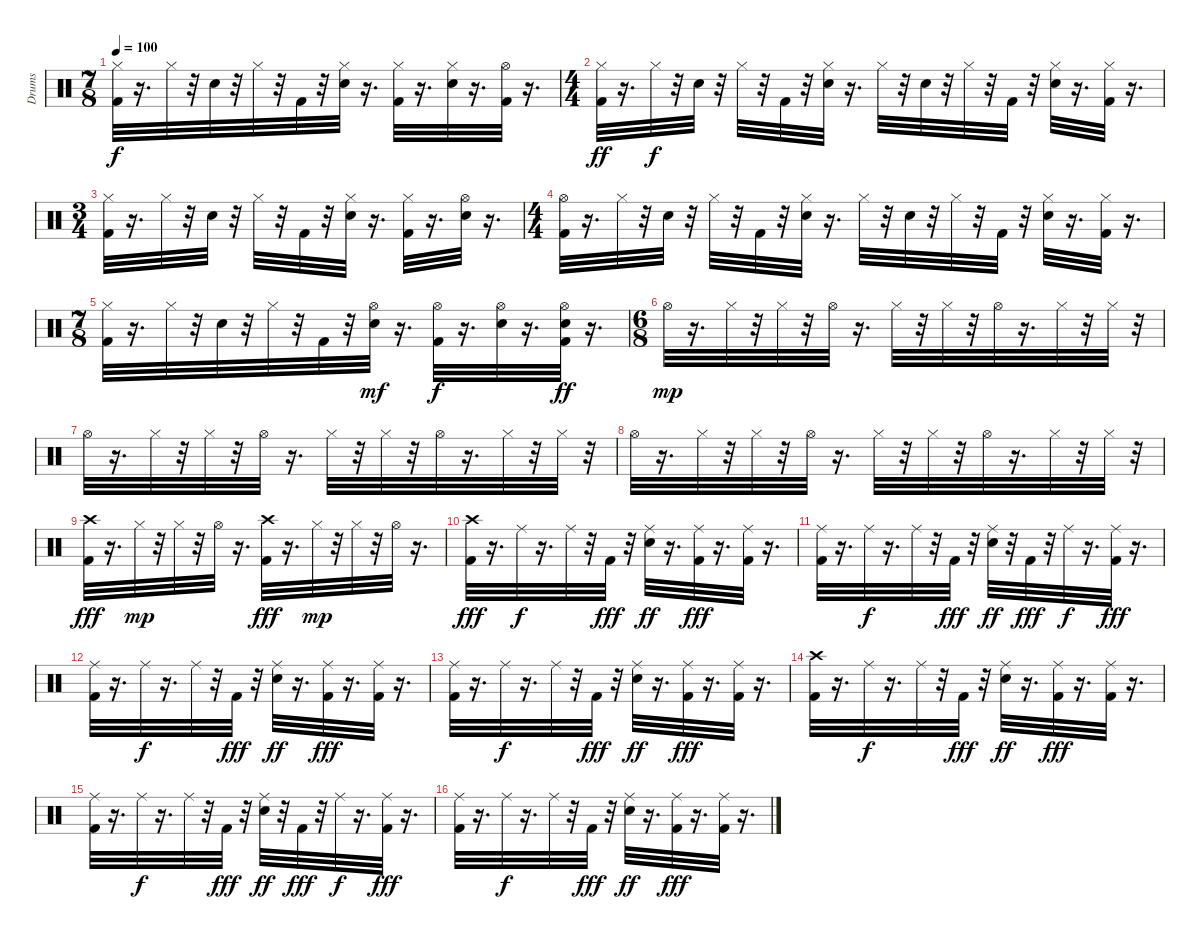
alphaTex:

\track ("Drums               " "Drums     ") {instrument percussion}
\staff {score}
\articulation defaults
\ts (7 8)
\tempo 100
\clef neutral
\ks c
("Hi-Hat (closed)" "Kick (hit) 2").32{dy f} r.16{d} "Hi-Hat (closed)".32 r.32 "Electric Snare (hit)".32 r.32 "Hi-Hat (closed)".32 r.32 "Kick (hit) 2".32 r.32 ("Hi-Hat (closed)" "Electric Snare (hit)").32 r.16{d} ("Hi-Hat (closed)" "Kick (hit) 2").32 r.16{d} ("Hi-Hat (closed)" "Electric Snare (hit)").32 r.16{d} ("Hi-Hat (open)" "Kick (hit) 2").32 r.16{d} |
\ts (4 4)
("Hi-Hat (closed)" "Kick (hit) 2").32{dy ff} r.16{d} "Hi-Hat (closed)".32{dy f} r.32 "Electric Snare (hit)".32 r.32 "Hi-Hat (closed)".32 r.32 "Kick (hit) 2".32 r.32 ("Hi-Hat (closed)" "Electric Snare (hit)").32 r.16{d} "Hi-Hat (closed)".32 r.32 "Electric Snare (hit)".32 r.32 "Hi-Hat (closed)".32 r.32 "Kick (hit) 2".32 r.32 ("Hi-Hat (closed)" "Electric Snare (hit)").32 r.16{d} ("Hi-Hat (closed)" "Kick (hit) 2").32 r.16{d} |
\ts (3 4)
("Hi-Hat (closed)" "Kick (hit) 2").32 r.16{d} "Hi-Hat (closed)".32 r.32 "Electric Snare (hit)".32 r.32 "Hi-Hat (closed)".32 r.32 "Kick (hit) 2".32 r.32 ("Hi-Hat (closed)" "Electric Snare (hit)").32 r.16{d} ("Hi-Hat (closed)" "Kick (hit) 2").32 r.16{d} ("Hi-Hat (open)" "Electric Snare (hit)").32 r.16{d} |
\ts (4 4)
("Hi-Hat (open)" "Kick (hit) 2").32 r.16{d} "Hi-Hat (closed)".32 r.32 "Electric Snare (hit)".32 r.32 "Hi-Hat (closed)".32 r.32 "Kick (hit) 2".32 r.32 ("Hi-Hat (closed)" "Electric Snare (hit)").32 r.16{d} "Hi-Hat (closed)".32 r.32 "Electric Snare (hit)".32 r.32 "Hi-Hat (closed)".32 r.32 "Kick (hit) 2".32 r.32 ("Hi-Hat (closed)" "Electric Snare (hit)").32 r.16{d} ("Hi-Hat (closed)" "Kick (hit) 2").32 r.16{d} |
\ts (7 8)
("Hi-Hat (closed)" "Kick (hit) 2").32 r.16{d} "Hi-Hat (closed)".32 r.32 "Electric Snare (hit)".32 r.32 "Hi-Hat (closed)".32 r.32 "Kick (hit) 2".32 r.32 ("Hi-Hat (open)" "Electric Snare (hit)").32{dy mf} r.16{d} ("Hi-Hat (open)" "Kick (hit) 2").32{dy f} r.16{d} ("Hi-Hat (open)" "Electric Snare (hit)").32 r.16{d} ("Hi-Hat (open)" "Electric Snare (hit)" "Kick (hit) 2").32{dy ff} r.16{d} |
\ts (6 8)
"Hi-Hat (open)".32{dy mp} r.16{d} "Hi-Hat (closed)".32 r.32 "Hi-Hat (closed)".32 r.32 "Hi-Hat (open)".32 r.16{d} "Hi-Hat (closed)".32 r.32 "Hi-Hat (closed)".32 r.32 "Hi-Hat (open)".32 r.16{d} "Hi-Hat (closed)".32 r.32 "Hi-Hat (closed)".32 r.32 |
"Hi-Hat (open)".32 r.16{d} "Hi-Hat (closed)".32 r.32 "Hi-Hat (closed)".32 r.32 "Hi-Hat (open)".32 r.16{d} "Hi-Hat (closed)".32 r.32 "Hi-Hat (closed)".32 r.32 "Hi-Hat (open)".32 r.16{d} "Hi-Hat (closed)".32 r.32 "Hi-Hat (closed)".32 r.32 |
"Hi-Hat (open)".32 r.16{d} "Hi-Hat (closed)".32 r.32 "Hi-Hat (closed)".32 r.32 "Hi-Hat (open)".32 r.16{d} "Hi-Hat (closed)".32 r.32 "Hi-Hat (closed)".32 r.32 "Hi-Hat (open)".32 r.16{d} "Hi-Hat (closed)".32 r.32 "Hi-Hat (closed)".32 r.32 |
("Kick (hit) 2" "Crash high (hit)").32{dy fff} r.16{d} "Hi-Hat (closed)".32{dy mp} r.32 "Hi-Hat (closed)".32 r.32 "Hi-Hat (open)".32 r.16{d} ("Kick (hit) 2" "Crash high (hit)").32{dy fff} r.16{d} "Hi-Hat (closed)".32{dy mp} r.32 "Hi-Hat (closed)".32 r.32 "Hi-Hat (open)".32 r.16{d} |
("Kick (hit) 2" "Crash high (hit)").32{dy fff} r.16{d} "Ride (middle)".32{dy f} r.16{d} "Ride (middle)".32 r.32 "Kick (hit) 2".32{dy fff} r.32 ("Electric Snare (hit)" "Ride (middle)").32{dy ff} r.16{d} ("Kick (hit) 2" "Ride (middle)").32{dy fff} r.16{d} ("Kick (hit) 2" "Ride (middle)").32 r.16{d} |
("Ride (middle)" "Kick (hit) 2").32 r.16{d} "Ride (middle)".32{dy f} r.16{d} "Ride (middle)".32 r.32 "Kick (hit) 2".32{dy fff} r.32 ("Electric Snare (hit)" "Ride (middle)").32{dy ff} r.32 "Kick (hit) 2".32{dy fff} r.32 "Ride (middle)".32{dy f} r.16{d} ("Kick (hit) 2" "Ride (middle)").32{dy fff} r.16{d} |
("Ride (middle)" "Kick (hit) 2").32 r.16{d} "Ride (middle)".32{dy f} r.16{d} "Ride (middle)".32 r.32 "Kick (hit) 2".32{dy fff} r.32 ("Electric Snare (hit)" "Ride (middle)").32{dy ff} r.16{d} ("Kick (hit) 2" "Ride (middle)").32{dy fff} r.16{d} ("Kick (hit) 2" "Ride (middle)").32 r.16{d} |
("Ride (middle)" "Kick (hit) 2").32 r.16{d} "Ride (middle)".32{dy f} r.16{d} "Ride (middle)".32 r.32 "Kick (hit) 2".32{dy fff} r.32 ("Electric Snare (hit)" "Ride (middle)").32{dy ff} r.16{d} ("Kick (hit) 2" "Ride (middle)").32{dy fff} r.16{d} ("Kick (hit) 2" "Ride (middle)").32 r.16{d} |
("Kick (hit) 2" "Crash high (hit)").32 r.16{d} "Ride (middle)".32{dy f} r.16{d} "Ride (middle)".32 r.32 "Kick (hit) 2".32{dy fff} r.32 ("Electric Snare (hit)" "Ride (middle)").32{dy ff} r.16{d} ("Kick (hit) 2" "Ride (middle)").32{dy fff} r.16{d} ("Kick (hit) 2" "Ride (middle)").32 r.16{d} |
("Ride (middle)" "Kick (hit) 2").32 r.16{d} "Ride (middle)".32{dy f} r.16{d} "Ride (middle)".32 r.32 "Kick (hit) 2".32{dy fff} r.32 ("Electric Snare (hit)" "Ride (middle)").32{dy ff} r.32 "Kick (hit) 2".32{dy fff} r.32 "Ride (middle)".32{dy f} r.16{d} ("Kick (hit) 2" "Ride (middle)").32{dy fff} r.16{d} |
("Ride (middle)" "Kick (hit) 2").32 r.16{d} "Ride (middle)".32{dy f} r.16{d} "Ride (middle)".32 r.32 "Kick (hit) 2".32{dy fff} r.32 ("Electric Snare (hit)" "Ride (middle)").32{dy ff} r.16{d} ("Kick (hit) 2" "Ride (middle)").32{dy fff} r.16{d} ("Kick (hit) 2" "Ride (middle)").32 r.16{d}
